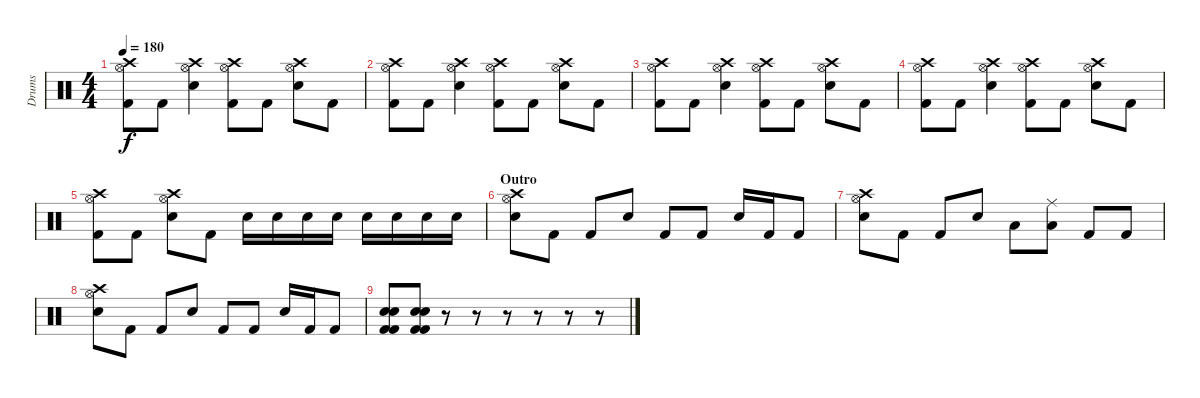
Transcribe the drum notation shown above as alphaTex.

\track ("Drums" "Drums") {instrument percussion}
\staff {score}
\articulation defaults
\ts (4 4)
\tempo 180
\clef neutral
\ks c
("Kick (hit) 2" "Hi-Hat (open)" "Crash high (hit)").8{dy f} "Kick (hit) 2".8 ("Snare (hit) 2" "Hi-Hat (open)" "Crash high (hit)").4 ("Hi-Hat (open)" "Crash high (hit)" "Kick (hit) 2").8 "Kick (hit) 2".8 ("Hi-Hat (open)" "Crash high (hit)" "Snare (hit) 2").8 "Kick (hit) 2".8 |
("Kick (hit) 2" "Hi-Hat (open)" "Crash high (hit)").8 "Kick (hit) 2".8 ("Snare (hit) 2" "Hi-Hat (open)" "Crash high (hit)").4 ("Hi-Hat (open)" "Crash high (hit)" "Kick (hit) 2").8 "Kick (hit) 2".8 ("Hi-Hat (open)" "Crash high (hit)" "Snare (hit) 2").8 "Kick (hit) 2".8 |
("Kick (hit) 2" "Hi-Hat (open)" "Crash high (hit)").8 "Kick (hit) 2".8 ("Snare (hit) 2" "Hi-Hat (open)" "Crash high (hit)").4 ("Hi-Hat (open)" "Crash high (hit)" "Kick (hit) 2").8 "Kick (hit) 2".8 ("Hi-Hat (open)" "Crash high (hit)" "Snare (hit) 2").8 "Kick (hit) 2".8 |
("Kick (hit) 2" "Hi-Hat (open)" "Crash high (hit)").8 "Kick (hit) 2".8 ("Snare (hit) 2" "Hi-Hat (open)" "Crash high (hit)").4 ("Hi-Hat (open)" "Crash high (hit)" "Kick (hit) 2").8 "Kick (hit) 2".8 ("Hi-Hat (open)" "Crash high (hit)" "Snare (hit) 2").8 "Kick (hit) 2".8 |
("Kick (hit) 2" "Hi-Hat (open)" "Crash high (hit)").8 "Kick (hit) 2".8 ("Snare (hit) 2" "Hi-Hat (open)" "Crash high (hit)").8 "Kick (hit) 2".8 "Snare (hit) 2".16 "Snare (hit) 2".16 "Snare (hit) 2".16 "Snare (hit) 2".16 "Snare (hit) 2".16 "Snare (hit) 2".16 "Snare (hit) 2".16 "Snare (hit) 2".16 |
\section ("" "Outro")
("Hi-Hat (open)" "Crash high (hit)" "Snare (hit) 2").8 "Kick (hit) 2".8 "Kick (hit) 2".8 "Snare (hit) 2".8 "Kick (hit) 2".8 "Kick (hit) 2".8 "Snare (hit) 2".16 "Kick (hit) 2".16 "Kick (hit) 2".8 |
("Hi-Hat (open)" "Crash high (hit)" "Snare (hit) 2").8 "Kick (hit) 2".8 "Kick (hit) 2".8 "Snare (hit) 2".8 "Low Tom (hit)".8 ("Ride (middle)" "Low Floor Tom (hit)").8 "Kick (hit) 2".8 "Kick (hit) 2".8 |
("Hi-Hat (open)" "Crash high (hit)" "Snare (hit) 2").8 "Kick (hit) 2".8 "Kick (hit) 2".8 "Snare (hit) 2".8 "Kick (hit) 2".8 "Kick (hit) 2".8 "Snare (hit) 2".16 "Kick (hit) 2".16 "Kick (hit) 2".8 |
("Kick (hit) 2" "Kick (hit) 2" "Snare (hit) 2" "Snare (hit) 2").8 ("Snare (hit) 2" "Kick (hit) 2" "Snare (hit) 2" "Kick (hit) 2").8 r.8 r.8 r.8 r.8 r.8 r.8
